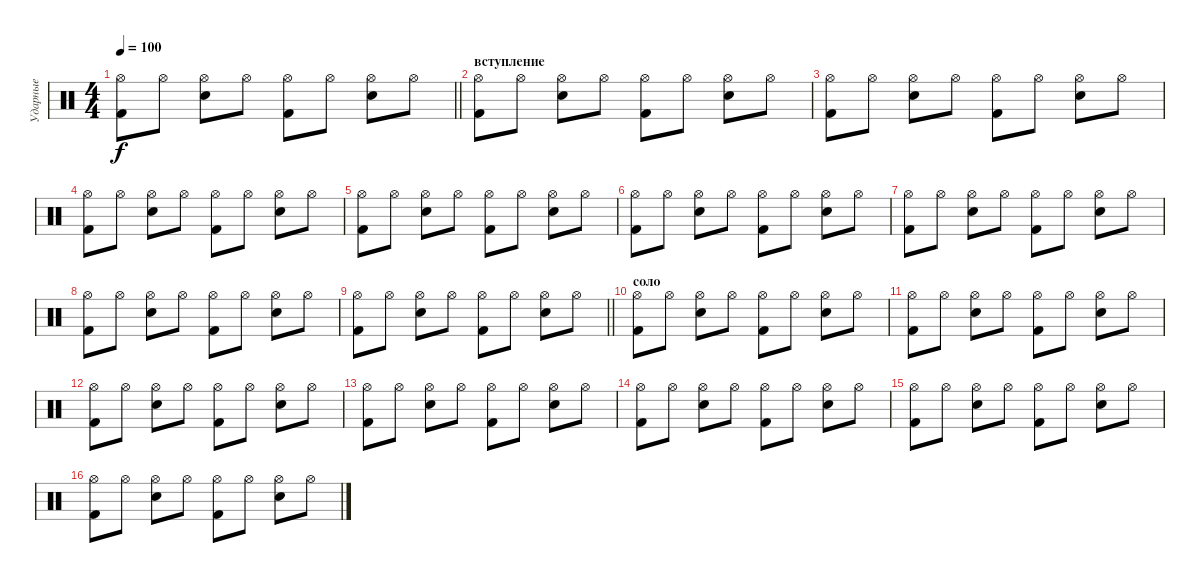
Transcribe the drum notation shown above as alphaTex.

\track ("Ударные" "Ударные") {instrument percussion}
\staff {score}
\articulation defaults
\ts (4 4)
\tempo 100
\clef neutral
\barLineRight lightlight
\ks c
("Hi-Hat (open)" "Kick (hit) 2").8{dy f} "Hi-Hat (open)".8 ("Hi-Hat (open)" "Snare (hit) 2").8 "Hi-Hat (open)".8 ("Hi-Hat (open)" "Kick (hit) 2").8 "Hi-Hat (open)".8 ("Hi-Hat (open)" "Snare (hit) 2").8 "Hi-Hat (open)".8 |
\section ("" "вступление")
("Hi-Hat (open)" "Kick (hit) 2").8 "Hi-Hat (open)".8 ("Hi-Hat (open)" "Snare (hit) 2").8 "Hi-Hat (open)".8 ("Hi-Hat (open)" "Kick (hit) 2").8 "Hi-Hat (open)".8 ("Hi-Hat (open)" "Snare (hit) 2").8 "Hi-Hat (open)".8 |
("Hi-Hat (open)" "Kick (hit) 2").8 "Hi-Hat (open)".8 ("Hi-Hat (open)" "Snare (hit) 2").8 "Hi-Hat (open)".8 ("Hi-Hat (open)" "Kick (hit) 2").8 "Hi-Hat (open)".8 ("Hi-Hat (open)" "Snare (hit) 2").8 "Hi-Hat (open)".8 |
("Hi-Hat (open)" "Kick (hit) 2").8 "Hi-Hat (open)".8 ("Hi-Hat (open)" "Snare (hit) 2").8 "Hi-Hat (open)".8 ("Hi-Hat (open)" "Kick (hit) 2").8 "Hi-Hat (open)".8 ("Hi-Hat (open)" "Snare (hit) 2").8 "Hi-Hat (open)".8 |
("Hi-Hat (open)" "Kick (hit) 2").8 "Hi-Hat (open)".8 ("Hi-Hat (open)" "Snare (hit) 2").8 "Hi-Hat (open)".8 ("Hi-Hat (open)" "Kick (hit) 2").8 "Hi-Hat (open)".8 ("Hi-Hat (open)" "Snare (hit) 2").8 "Hi-Hat (open)".8 |
("Hi-Hat (open)" "Kick (hit) 2").8 "Hi-Hat (open)".8 ("Hi-Hat (open)" "Snare (hit) 2").8 "Hi-Hat (open)".8 ("Hi-Hat (open)" "Kick (hit) 2").8 "Hi-Hat (open)".8 ("Hi-Hat (open)" "Snare (hit) 2").8 "Hi-Hat (open)".8 |
("Hi-Hat (open)" "Kick (hit) 2").8 "Hi-Hat (open)".8 ("Hi-Hat (open)" "Snare (hit) 2").8 "Hi-Hat (open)".8 ("Hi-Hat (open)" "Kick (hit) 2").8 "Hi-Hat (open)".8 ("Hi-Hat (open)" "Snare (hit) 2").8 "Hi-Hat (open)".8 |
("Hi-Hat (open)" "Kick (hit) 2").8 "Hi-Hat (open)".8 ("Hi-Hat (open)" "Snare (hit) 2").8 "Hi-Hat (open)".8 ("Hi-Hat (open)" "Kick (hit) 2").8 "Hi-Hat (open)".8 ("Hi-Hat (open)" "Snare (hit) 2").8 "Hi-Hat (open)".8 |
\barLineRight lightlight
("Hi-Hat (open)" "Kick (hit) 2").8 "Hi-Hat (open)".8 ("Hi-Hat (open)" "Snare (hit) 2").8 "Hi-Hat (open)".8 ("Hi-Hat (open)" "Kick (hit) 2").8 "Hi-Hat (open)".8 ("Hi-Hat (open)" "Snare (hit) 2").8 "Hi-Hat (open)".8 |
\section ("" "соло")
("Hi-Hat (open)" "Kick (hit) 2").8 "Hi-Hat (open)".8 ("Hi-Hat (open)" "Snare (hit) 2").8 "Hi-Hat (open)".8 ("Hi-Hat (open)" "Kick (hit) 2").8 "Hi-Hat (open)".8 ("Hi-Hat (open)" "Snare (hit) 2").8 "Hi-Hat (open)".8 |
("Hi-Hat (open)" "Kick (hit) 2").8 "Hi-Hat (open)".8 ("Hi-Hat (open)" "Snare (hit) 2").8 "Hi-Hat (open)".8 ("Hi-Hat (open)" "Kick (hit) 2").8 "Hi-Hat (open)".8 ("Hi-Hat (open)" "Snare (hit) 2").8 "Hi-Hat (open)".8 |
("Hi-Hat (open)" "Kick (hit) 2").8 "Hi-Hat (open)".8 ("Hi-Hat (open)" "Snare (hit) 2").8 "Hi-Hat (open)".8 ("Hi-Hat (open)" "Kick (hit) 2").8 "Hi-Hat (open)".8 ("Hi-Hat (open)" "Snare (hit) 2").8 "Hi-Hat (open)".8 |
("Hi-Hat (open)" "Kick (hit) 2").8 "Hi-Hat (open)".8 ("Hi-Hat (open)" "Snare (hit) 2").8 "Hi-Hat (open)".8 ("Hi-Hat (open)" "Kick (hit) 2").8 "Hi-Hat (open)".8 ("Hi-Hat (open)" "Snare (hit) 2").8 "Hi-Hat (open)".8 |
("Hi-Hat (open)" "Kick (hit) 2").8 "Hi-Hat (open)".8 ("Hi-Hat (open)" "Snare (hit) 2").8 "Hi-Hat (open)".8 ("Hi-Hat (open)" "Kick (hit) 2").8 "Hi-Hat (open)".8 ("Hi-Hat (open)" "Snare (hit) 2").8 "Hi-Hat (open)".8 |
("Hi-Hat (open)" "Kick (hit) 2").8 "Hi-Hat (open)".8 ("Hi-Hat (open)" "Snare (hit) 2").8 "Hi-Hat (open)".8 ("Hi-Hat (open)" "Kick (hit) 2").8 "Hi-Hat (open)".8 ("Hi-Hat (open)" "Snare (hit) 2").8 "Hi-Hat (open)".8 |
("Hi-Hat (open)" "Kick (hit) 2").8 "Hi-Hat (open)".8 ("Hi-Hat (open)" "Snare (hit) 2").8 "Hi-Hat (open)".8 ("Hi-Hat (open)" "Kick (hit) 2").8 "Hi-Hat (open)".8 ("Hi-Hat (open)" "Snare (hit) 2").8 "Hi-Hat (open)".8
